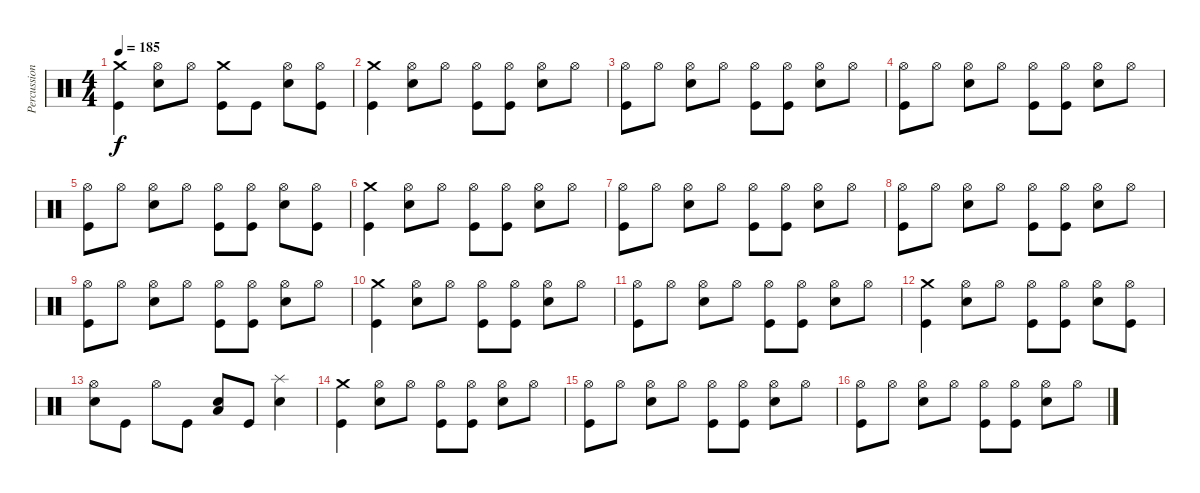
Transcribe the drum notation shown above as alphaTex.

\track ("Percussion" "Percussion") {instrument percussion}
\staff {score}
\articulation defaults
\ts (4 4)
\tempo 185
\clef neutral
\ks c
("Crash medium (hit)" "Kick (hit)").4{dy f} ("Hi-Hat (open)" "Electric Snare (hit)").8 "Hi-Hat (open)".8 ("Crash medium (hit)" "Kick (hit)").8 "Kick (hit)".8 ("Hi-Hat (open)" "Electric Snare (hit)").8 ("Hi-Hat (open)" "Kick (hit)").8 |
("Crash medium (hit)" "Kick (hit)").4 ("Hi-Hat (open)" "Electric Snare (hit)").8 "Hi-Hat (open)".8 ("Hi-Hat (open)" "Kick (hit)").8 ("Hi-Hat (open)" "Kick (hit)").8 ("Hi-Hat (open)" "Electric Snare (hit)").8 "Hi-Hat (open)".8 |
("Hi-Hat (open)" "Kick (hit)").8 "Hi-Hat (open)".8 ("Hi-Hat (open)" "Electric Snare (hit)").8 "Hi-Hat (open)".8 ("Hi-Hat (open)" "Kick (hit)").8 ("Hi-Hat (open)" "Kick (hit)").8 ("Hi-Hat (open)" "Electric Snare (hit)").8 "Hi-Hat (open)".8 |
("Hi-Hat (open)" "Kick (hit)").8 "Hi-Hat (open)".8 ("Hi-Hat (open)" "Electric Snare (hit)").8 "Hi-Hat (open)".8 ("Hi-Hat (open)" "Kick (hit)").8 ("Hi-Hat (open)" "Kick (hit)").8 ("Hi-Hat (open)" "Electric Snare (hit)").8 "Hi-Hat (open)".8 |
("Hi-Hat (open)" "Kick (hit)").8 "Hi-Hat (open)".8 ("Hi-Hat (open)" "Electric Snare (hit)").8 "Hi-Hat (open)".8 ("Hi-Hat (open)" "Kick (hit)").8 ("Hi-Hat (open)" "Kick (hit)").8 ("Hi-Hat (open)" "Electric Snare (hit)").8 ("Hi-Hat (open)" "Kick (hit)").8 |
("Crash medium (hit)" "Kick (hit)").4 ("Hi-Hat (open)" "Electric Snare (hit)").8 "Hi-Hat (open)".8 ("Hi-Hat (open)" "Kick (hit)").8 ("Hi-Hat (open)" "Kick (hit)").8 ("Hi-Hat (open)" "Electric Snare (hit)").8 "Hi-Hat (open)".8 |
("Hi-Hat (open)" "Kick (hit)").8 "Hi-Hat (open)".8 ("Hi-Hat (open)" "Electric Snare (hit)").8 "Hi-Hat (open)".8 ("Hi-Hat (open)" "Kick (hit)").8 ("Hi-Hat (open)" "Kick (hit)").8 ("Hi-Hat (open)" "Electric Snare (hit)").8 "Hi-Hat (open)".8 |
("Hi-Hat (open)" "Kick (hit)").8 "Hi-Hat (open)".8 ("Hi-Hat (open)" "Electric Snare (hit)").8 "Hi-Hat (open)".8 ("Hi-Hat (open)" "Kick (hit)").8 ("Hi-Hat (open)" "Kick (hit)").8 ("Hi-Hat (open)" "Electric Snare (hit)").8 "Hi-Hat (open)".8 |
("Hi-Hat (open)" "Kick (hit)").8 "Hi-Hat (open)".8 ("Hi-Hat (open)" "Electric Snare (hit)").8 "Hi-Hat (open)".8 ("Hi-Hat (open)" "Kick (hit)").8 ("Hi-Hat (open)" "Kick (hit)").8 ("Hi-Hat (open)" "Electric Snare (hit)").8 "Hi-Hat (open)".8 |
("Crash medium (hit)" "Kick (hit)").4 ("Hi-Hat (open)" "Electric Snare (hit)").8 "Hi-Hat (open)".8 ("Hi-Hat (open)" "Kick (hit)").8 ("Hi-Hat (open)" "Kick (hit)").8 ("Hi-Hat (open)" "Electric Snare (hit)").8 "Hi-Hat (open)".8 |
("Hi-Hat (open)" "Kick (hit)").8 "Hi-Hat (open)".8 ("Hi-Hat (open)" "Electric Snare (hit)").8 "Hi-Hat (open)".8 ("Hi-Hat (open)" "Kick (hit)").8 ("Hi-Hat (open)" "Kick (hit)").8 ("Hi-Hat (open)" "Electric Snare (hit)").8 "Hi-Hat (open)".8 |
("Crash medium (hit)" "Kick (hit)").4 ("Hi-Hat (open)" "Electric Snare (hit)").8 "Hi-Hat (open)".8 ("Hi-Hat (open)" "Kick (hit)").8 ("Hi-Hat (open)" "Kick (hit)").8 ("Hi-Hat (open)" "Electric Snare (hit)").8 ("Hi-Hat (open)" "Kick (hit)").8 |
("Hi-Hat (open)" "Electric Snare (hit)").8 "Kick (hit)".8 "Hi-Hat (open)".8 "Kick (hit)".8 ("Electric Snare (hit)" "Low Tom (hit)").8 "Kick (hit)".8 ("Splash (hit)" "Electric Snare (hit)").4 |
("Crash medium (hit)" "Kick (hit)").4 ("Hi-Hat (open)" "Electric Snare (hit)").8 "Hi-Hat (open)".8 ("Hi-Hat (open)" "Kick (hit)").8 ("Hi-Hat (open)" "Kick (hit)").8 ("Hi-Hat (open)" "Electric Snare (hit)").8 "Hi-Hat (open)".8 |
("Hi-Hat (open)" "Kick (hit)").8 "Hi-Hat (open)".8 ("Hi-Hat (open)" "Electric Snare (hit)").8 "Hi-Hat (open)".8 ("Hi-Hat (open)" "Kick (hit)").8 ("Hi-Hat (open)" "Kick (hit)").8 ("Hi-Hat (open)" "Electric Snare (hit)").8 "Hi-Hat (open)".8 |
("Hi-Hat (open)" "Kick (hit)").8 "Hi-Hat (open)".8 ("Hi-Hat (open)" "Electric Snare (hit)").8 "Hi-Hat (open)".8 ("Hi-Hat (open)" "Kick (hit)").8 ("Hi-Hat (open)" "Kick (hit)").8 ("Hi-Hat (open)" "Electric Snare (hit)").8 "Hi-Hat (open)".8
